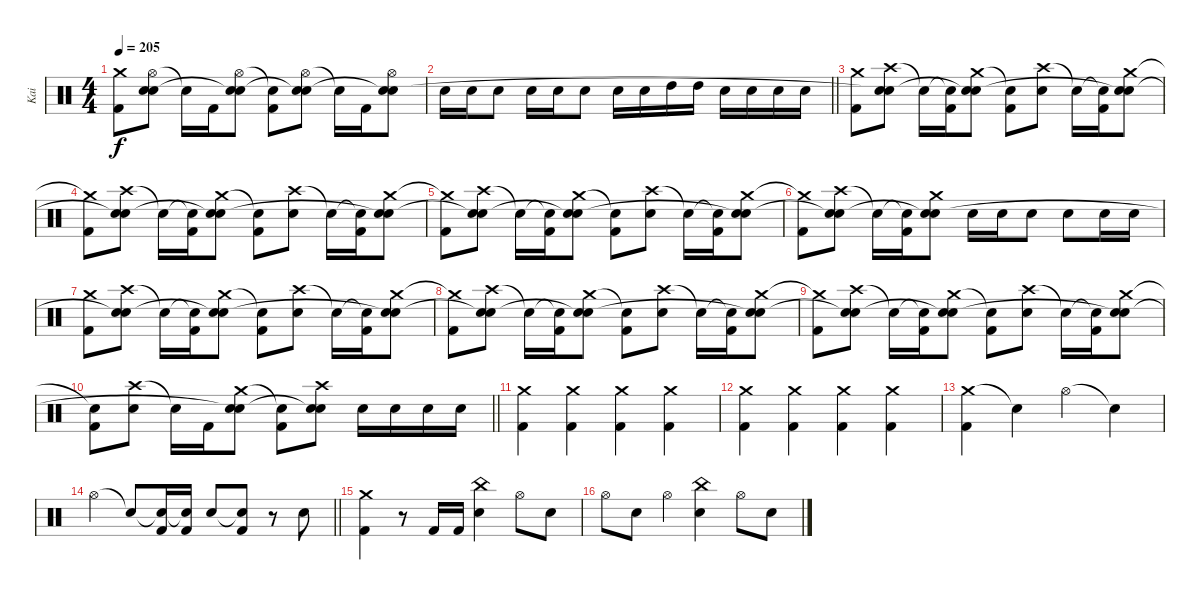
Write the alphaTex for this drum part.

\track ("Kai" "Kai") {instrument percussion}
\staff {score}
\articulation defaults
\ts (4 4)
\tempo 205
\clef neutral
\ks c
("Crash medium (hit)"{t} "Kick (hit) 2").8{dy f} ("Hi-Hat (open)" "Snare (hit) 2" "Snare (hit)"{t}).8 "Snare (hit)"{t}.16 "Kick (hit) 2".16 ("Hi-Hat (open)" "Snare (hit) 2" "Snare (hit)"{t}).8 ("Snare (hit)"{t} "Kick (hit) 2").8 ("Hi-Hat (open)" "Snare (hit) 2" "Snare (hit)"{t}).8 "Snare (hit)"{t}.16 "Kick (hit) 2".16 ("Hi-Hat (open)" "Snare (hit) 2" "Snare (hit)"{t}).8 |
\barLineRight lightlight "Snare (hit) 2".16 "Snare (hit) 2".16 "Snare (hit) 2".8 "Snare (hit) 2".16 "Snare (hit) 2".16 "Snare (hit) 2".8 "Snare (hit) 2".16 "Snare (hit) 2".16 "High Tom (hit)".16 "High Tom (hit)".16 "Snare (hit) 2".16 "Snare (hit) 2".16 "Snare (hit) 2".16 "Snare (hit) 2".16
|
("Crash medium (hit)" "Kick (hit) 2").8 ("Crash high (hit)" "Snare (hit) 2" "Snare (hit)"{t}).8 "Snare (hit)"{t}.16 ("Snare (hit)"{t} "Kick (hit) 2").16 ("Crash medium (hit)" "Snare (hit) 2" "Snare (hit)"{t}).8 ("Snare (hit)"{t} "Kick (hit) 2").8 ("Crash high (hit)" "Snare (hit) 2").8 "Snare (hit)"{t}.16 ("Snare (hit)"{t} "Kick (hit) 2").16 ("Crash medium (hit)" "Snare (hit) 2" "Snare (hit)"{t}).8 |
("Crash medium (hit)"{t} "Kick (hit) 2").8 ("Crash high (hit)" "Snare (hit) 2" "Snare (hit)"{t}).8 "Snare (hit)"{t}.16 ("Snare (hit)"{t} "Kick (hit) 2").16 ("Crash medium (hit)" "Snare (hit) 2" "Snare (hit)"{t}).8 ("Snare (hit)"{t} "Kick (hit) 2").8 ("Crash high (hit)" "Snare (hit) 2").8 "Snare (hit)"{t}.16 ("Snare (hit)"{t} "Kick (hit) 2").16 ("Crash medium (hit)" "Snare (hit) 2" "Snare (hit)"{t}).8 |
("Crash medium (hit)"{t} "Kick (hit) 2").8 ("Crash high (hit)" "Snare (hit) 2" "Snare (hit)"{t}).8 "Snare (hit)"{t}.16 ("Snare (hit)"{t} "Kick (hit) 2").16 ("Crash medium (hit)" "Snare (hit) 2" "Snare (hit)"{t}).8 ("Snare (hit)"{t} "Kick (hit) 2").8 ("Crash high (hit)" "Snare (hit) 2").8 "Snare (hit)"{t}.16 ("Snare (hit)"{t} "Kick (hit) 2").16 ("Crash medium (hit)" "Snare (hit) 2" "Snare (hit)"{t}).8 |
("Crash medium (hit)"{t} "Kick (hit) 2").8 ("Crash high (hit)" "Snare (hit) 2" "Snare (hit)"{t}).8 "Snare (hit)"{t}.16 ("Snare (hit)"{t} "Kick (hit) 2").16 ("Crash medium (hit)" "Snare (hit) 2" "Snare (hit)"{t}).8 "Snare (hit) 2".16 "Snare (hit) 2".16 "Snare (hit) 2".8 "Snare (hit) 2".8 "Snare (hit) 2".16 "Snare (hit) 2".16 |
("Crash medium (hit)" "Kick (hit) 2").8 ("Crash high (hit)" "Snare (hit) 2" "Snare (hit)"{t}).8 "Snare (hit)"{t}.16 ("Snare (hit)"{t} "Kick (hit) 2").16 ("Crash medium (hit)" "Snare (hit) 2" "Snare (hit)"{t}).8 ("Snare (hit)"{t} "Kick (hit) 2").8 ("Crash high (hit)" "Snare (hit) 2").8 "Snare (hit)"{t}.16 ("Snare (hit)"{t} "Kick (hit) 2").16 ("Crash medium (hit)" "Snare (hit) 2" "Snare (hit)"{t}).8 |
("Crash medium (hit)"{t} "Kick (hit) 2").8 ("Crash high (hit)" "Snare (hit) 2" "Snare (hit)"{t}).8 "Snare (hit)"{t}.16 ("Snare (hit)"{t} "Kick (hit) 2").16 ("Crash medium (hit)" "Snare (hit) 2" "Snare (hit)"{t}).8 ("Snare (hit)"{t} "Kick (hit) 2").8 ("Crash high (hit)" "Snare (hit) 2").8 "Snare (hit)"{t}.16 ("Snare (hit)"{t} "Kick (hit) 2").16 ("Crash medium (hit)" "Snare (hit) 2" "Snare (hit)"{t}).8 |
("Crash medium (hit)"{t} "Kick (hit) 2").8 ("Crash high (hit)" "Snare (hit) 2" "Snare (hit)"{t}).8 "Snare (hit)"{t}.16 ("Snare (hit)"{t} "Kick (hit) 2").16 ("Crash medium (hit)" "Snare (hit) 2" "Snare (hit)"{t}).8 ("Snare (hit)"{t} "Kick (hit) 2").8 ("Crash high (hit)" "Snare (hit) 2").8 "Snare (hit)"{t}.16 ("Snare (hit)"{t} "Kick (hit) 2").16 ("Crash medium (hit)" "Snare (hit) 2" "Snare (hit)"{t}).8 |
\barLineRight lightlight
("Snare (hit)"{t} "Kick (hit) 2").8 ("Crash high (hit)" "Snare (hit) 2").8 "Snare (hit)"{t}.16 "Kick (hit) 2".16 ("Crash medium (hit)" "Snare (hit) 2" "Snare (hit)"{t}).8 ("Snare (hit)"{t} "Kick (hit) 2").8 ("Crash high (hit)" "Snare (hit) 2" "Snare (hit)"{t}).8 "Snare (hit) 2".16 "Snare (hit) 2".16 "Snare (hit) 2".16 "Snare (hit) 2".16 |
("Crash medium (hit)" "Kick (hit) 2").4 ("Crash medium (hit)" "Kick (hit) 2").4 ("Crash medium (hit)" "Kick (hit) 2").4 ("Crash medium (hit)" "Kick (hit) 2").4 |
("Crash medium (hit)" "Kick (hit) 2").4 ("Crash medium (hit)" "Kick (hit) 2").4 ("Crash medium (hit)" "Kick (hit) 2").4 ("Crash medium (hit)" "Kick (hit) 2").4 |
("Crash medium (hit)" "Kick (hit) 2").4 "Snare (hit)"{t}.4 "Hi-Hat (open)".4 "Snare (hit)"{t}.4 |
\barLineRight lightlight "Hi-Hat (open)".4 "Snare (hit)"{t}.8
("Snare (hit)"{t} "Kick (hit) 2").16 ("Snare (hit)"{t} "Kick (hit) 2").16 "Snare (hit) 2".8 ("Snare (hit)"{t} "Kick (hit) 2").8 r.8 "Snare (hit) 2".8 |
("Crash medium (hit)" "Kick (hit) 2").4 r.8 "Kick (hit) 2".16 "Kick (hit) 2".16 ("China (hit)" "Snare (hit) 2").4 "Hi-Hat (open)".8 "Snare (hit) 2".8 |
"Hi-Hat (open)".8 "Snare (hit) 2".8 "Hi-Hat (open)".4 ("China (hit)" "Snare (hit) 2").4 "Hi-Hat (open)".8 "Snare (hit) 2".8
